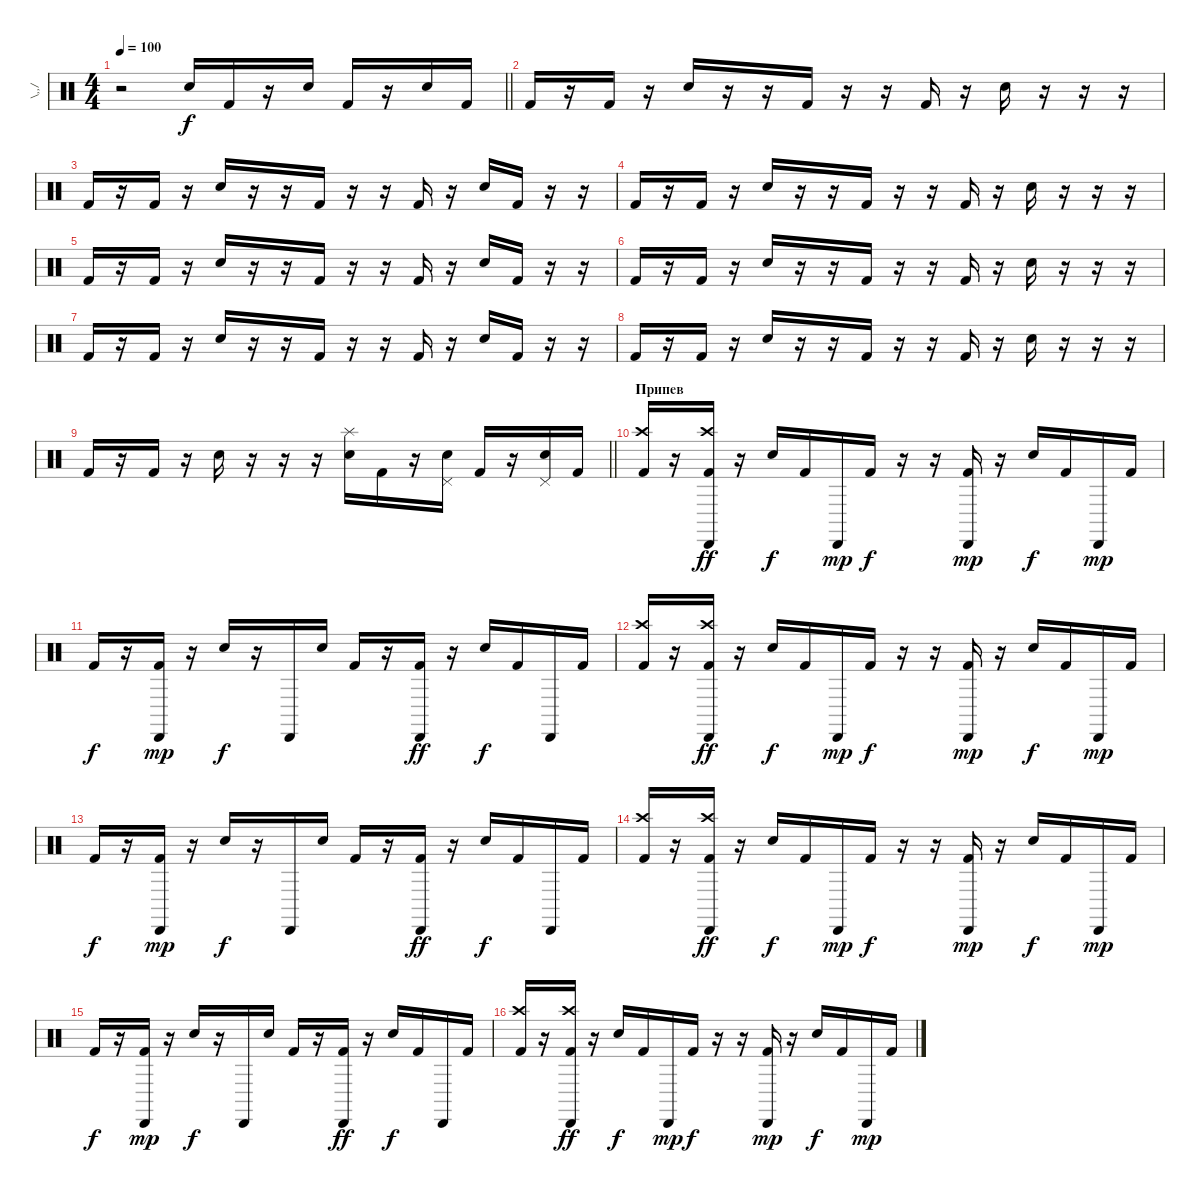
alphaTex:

\track ("\\,,/    " "\\,,/    ") {instrument percussion}
\staff {score}
\articulation defaults
\ts (4 4)
\tempo 100
\clef neutral
\barLineRight lightlight
\ks c
r.2{dy f} "Electric Snare (hit)".16 "Kick (hit) 2".16 r.16 "Electric Snare (hit)".16 "Kick (hit) 2".16 r.16 "Electric Snare (hit)".16 "Kick (hit) 2".16 |
"Kick (hit) 2".16 r.16 "Kick (hit) 2".16 r.16 "Electric Snare (hit)".16 r.16 r.16 "Kick (hit) 2".16 r.16 r.16 "Kick (hit) 2".16 r.16 "Electric Snare (hit)".16 r.16 r.16 r.16 |
"Kick (hit) 2".16 r.16 "Kick (hit) 2".16 r.16 "Electric Snare (hit)".16 r.16 r.16 "Kick (hit) 2".16 r.16 r.16 "Kick (hit) 2".16 r.16 "Electric Snare (hit)".16 "Kick (hit) 2".16 r.16 r.16 |
"Kick (hit) 2".16 r.16 "Kick (hit) 2".16 r.16 "Electric Snare (hit)".16 r.16 r.16 "Kick (hit) 2".16 r.16 r.16 "Kick (hit) 2".16 r.16 "Electric Snare (hit)".16 r.16 r.16 r.16 |
"Kick (hit) 2".16 r.16 "Kick (hit) 2".16 r.16 "Electric Snare (hit)".16 r.16 r.16 "Kick (hit) 2".16 r.16 r.16 "Kick (hit) 2".16 r.16 "Electric Snare (hit)".16 "Kick (hit) 2".16 r.16 r.16 |
"Kick (hit) 2".16 r.16 "Kick (hit) 2".16 r.16 "Electric Snare (hit)".16 r.16 r.16 "Kick (hit) 2".16 r.16 r.16 "Kick (hit) 2".16 r.16 "Electric Snare (hit)".16 r.16 r.16 r.16 |
"Kick (hit) 2".16 r.16 "Kick (hit) 2".16 r.16 "Electric Snare (hit)".16 r.16 r.16 "Kick (hit) 2".16 r.16 r.16 "Kick (hit) 2".16 r.16 "Electric Snare (hit)".16 "Kick (hit) 2".16 r.16 r.16 |
"Kick (hit) 2".16 r.16 "Kick (hit) 2".16 r.16 "Electric Snare (hit)".16 r.16 r.16 "Kick (hit) 2".16 r.16 r.16 "Kick (hit) 2".16 r.16 "Electric Snare (hit)".16 r.16 r.16 r.16 |
\barLineRight lightlight "Kick (hit) 2".16
r.16 "Kick (hit) 2".16 r.16 "Electric Snare (hit)".16 r.16 r.16 r.16 ("Splash (hit)" "Electric Snare (hit)").16 "Kick (hit) 2".16 r.16 ("Pedal Hi-Hat (hit)" "Electric Snare (hit)").16 "Kick (hit) 2".16 r.16 ("Pedal Hi-Hat (hit)" "Electric Snare (hit)").16 "Kick (hit) 2".16 |
\section ("" "Припев")
("Crash high (hit)" "Kick (hit) 2").16 r.16 ("Cabasa (hit)" "Crash high (hit)" "Kick (hit) 2").16{dy ff} r.16 "Electric Snare (hit)".16{dy f} "Kick (hit) 2".16 "Cabasa (hit)".16{dy mp} "Kick (hit) 2".16{dy f} r.16 r.16 ("Cabasa (hit)" "Kick (hit) 2").16{dy mp} r.16 "Electric Snare (hit)".16{dy f} "Kick (hit) 2".16 "Cabasa (hit)".16{dy mp} "Kick (hit) 2".16 |
"Kick (hit) 2".16{dy f} r.16 ("Cabasa (hit)" "Kick (hit) 2").16{dy mp} r.16 "Electric Snare (hit)".16{dy f} r.16 "Cabasa (hit)".16 "Electric Snare (hit)".16 "Kick (hit) 2".16 r.16 ("Cabasa (hit)" "Kick (hit) 2").16{dy ff} r.16 "Electric Snare (hit)".16{dy f} "Kick (hit) 2".16 "Cabasa (hit)".16 "Kick (hit) 2".16 |
("Crash high (hit)" "Kick (hit) 2").16 r.16 ("Cabasa (hit)" "Crash high (hit)" "Kick (hit) 2").16{dy ff} r.16 "Electric Snare (hit)".16{dy f} "Kick (hit) 2".16 "Cabasa (hit)".16{dy mp} "Kick (hit) 2".16{dy f} r.16 r.16 ("Cabasa (hit)" "Kick (hit) 2").16{dy mp} r.16 "Electric Snare (hit)".16{dy f} "Kick (hit) 2".16 "Cabasa (hit)".16{dy mp} "Kick (hit) 2".16 |
"Kick (hit) 2".16{dy f} r.16 ("Cabasa (hit)" "Kick (hit) 2").16{dy mp} r.16 "Electric Snare (hit)".16{dy f} r.16 "Cabasa (hit)".16 "Electric Snare (hit)".16 "Kick (hit) 2".16 r.16 ("Cabasa (hit)" "Kick (hit) 2").16{dy ff} r.16 "Electric Snare (hit)".16{dy f} "Kick (hit) 2".16 "Cabasa (hit)".16 "Kick (hit) 2".16 |
("Crash high (hit)" "Kick (hit) 2").16 r.16 ("Cabasa (hit)" "Crash high (hit)" "Kick (hit) 2").16{dy ff} r.16 "Electric Snare (hit)".16{dy f} "Kick (hit) 2".16 "Cabasa (hit)".16{dy mp} "Kick (hit) 2".16{dy f} r.16 r.16 ("Cabasa (hit)" "Kick (hit) 2").16{dy mp} r.16 "Electric Snare (hit)".16{dy f} "Kick (hit) 2".16 "Cabasa (hit)".16{dy mp} "Kick (hit) 2".16 |
"Kick (hit) 2".16{dy f} r.16 ("Cabasa (hit)" "Kick (hit) 2").16{dy mp} r.16 "Electric Snare (hit)".16{dy f} r.16 "Cabasa (hit)".16 "Electric Snare (hit)".16 "Kick (hit) 2".16 r.16 ("Cabasa (hit)" "Kick (hit) 2").16{dy ff} r.16 "Electric Snare (hit)".16{dy f} "Kick (hit) 2".16 "Cabasa (hit)".16 "Kick (hit) 2".16 |
("Crash high (hit)" "Kick (hit) 2").16 r.16 ("Cabasa (hit)" "Crash high (hit)" "Kick (hit) 2").16{dy ff} r.16 "Electric Snare (hit)".16{dy f} "Kick (hit) 2".16 "Cabasa (hit)".16{dy mp} "Kick (hit) 2".16{dy f} r.16 r.16 ("Cabasa (hit)" "Kick (hit) 2").16{dy mp} r.16 "Electric Snare (hit)".16{dy f} "Kick (hit) 2".16 "Cabasa (hit)".16{dy mp} "Kick (hit) 2".16
